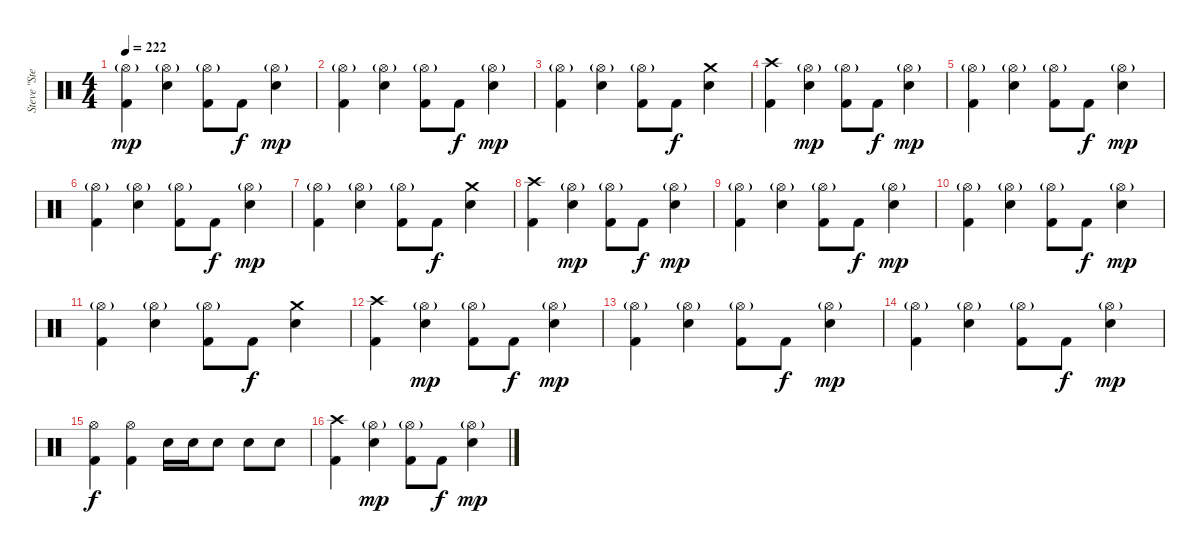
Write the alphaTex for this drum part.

\track ("Steve \"Stevo32\" Jocz " "Steve \"Ste") {instrument percussion}
\staff {score}
\articulation defaults
\ts (4 4)
\tempo 222
\clef neutral
\ks c
("Hi-Hat (open)"{g} "Kick (hit) 2").4{dy mp} ("Hi-Hat (open)"{g} "Electric Snare (hit)").4 ("Hi-Hat (open)"{g} "Kick (hit) 2").8 "Kick (hit) 2".8{dy f} ("Hi-Hat (open)"{g} "Electric Snare (hit)").4{dy mp} |
("Hi-Hat (open)"{g} "Kick (hit) 2").4 ("Hi-Hat (open)"{g} "Electric Snare (hit)").4 ("Hi-Hat (open)"{g} "Kick (hit) 2").8 "Kick (hit) 2".8{dy f} ("Hi-Hat (open)"{g} "Electric Snare (hit)").4{dy mp} |
("Hi-Hat (open)"{g} "Kick (hit) 2").4 ("Hi-Hat (open)"{g} "Electric Snare (hit)").4 ("Hi-Hat (open)"{g} "Kick (hit) 2").8 "Kick (hit) 2".8{dy f} ("Crash medium (hit)" "Electric Snare (hit)").4 |
("Crash high (hit)" "Kick (hit) 2").4 ("Hi-Hat (open)"{g} "Electric Snare (hit)").4{dy mp} ("Hi-Hat (open)"{g} "Kick (hit) 2").8 "Kick (hit) 2".8{dy f} ("Hi-Hat (open)"{g} "Electric Snare (hit)").4{dy mp} |
("Hi-Hat (open)"{g} "Kick (hit) 2").4 ("Hi-Hat (open)"{g} "Electric Snare (hit)").4 ("Hi-Hat (open)"{g} "Kick (hit) 2").8 "Kick (hit) 2".8{dy f} ("Hi-Hat (open)"{g} "Electric Snare (hit)").4{dy mp} |
("Hi-Hat (open)"{g} "Kick (hit) 2").4 ("Hi-Hat (open)"{g} "Electric Snare (hit)").4 ("Hi-Hat (open)"{g} "Kick (hit) 2").8 "Kick (hit) 2".8{dy f} ("Hi-Hat (open)"{g} "Electric Snare (hit)").4{dy mp} |
("Hi-Hat (open)"{g} "Kick (hit) 2").4 ("Hi-Hat (open)"{g} "Electric Snare (hit)").4 ("Hi-Hat (open)"{g} "Kick (hit) 2").8 "Kick (hit) 2".8{dy f} ("Crash medium (hit)" "Electric Snare (hit)").4 |
("Crash high (hit)" "Kick (hit) 2").4 ("Hi-Hat (open)"{g} "Electric Snare (hit)").4{dy mp} ("Hi-Hat (open)"{g} "Kick (hit) 2").8 "Kick (hit) 2".8{dy f} ("Hi-Hat (open)"{g} "Electric Snare (hit)").4{dy mp} |
("Hi-Hat (open)"{g} "Kick (hit) 2").4 ("Hi-Hat (open)"{g} "Electric Snare (hit)").4 ("Hi-Hat (open)"{g} "Kick (hit) 2").8 "Kick (hit) 2".8{dy f} ("Hi-Hat (open)"{g} "Electric Snare (hit)").4{dy mp} |
("Hi-Hat (open)"{g} "Kick (hit) 2").4 ("Hi-Hat (open)"{g} "Electric Snare (hit)").4 ("Hi-Hat (open)"{g} "Kick (hit) 2").8 "Kick (hit) 2".8{dy f} ("Hi-Hat (open)"{g} "Electric Snare (hit)").4{dy mp} |
("Hi-Hat (open)"{g} "Kick (hit) 2").4 ("Hi-Hat (open)"{g} "Electric Snare (hit)").4 ("Hi-Hat (open)"{g} "Kick (hit) 2").8 "Kick (hit) 2".8{dy f} ("Crash medium (hit)" "Electric Snare (hit)").4 |
("Crash high (hit)" "Kick (hit) 2").4 ("Hi-Hat (open)"{g} "Electric Snare (hit)").4{dy mp} ("Hi-Hat (open)"{g} "Kick (hit) 2").8 "Kick (hit) 2".8{dy f} ("Hi-Hat (open)"{g} "Electric Snare (hit)").4{dy mp} |
("Hi-Hat (open)"{g} "Kick (hit) 2").4 ("Hi-Hat (open)"{g} "Electric Snare (hit)").4 ("Hi-Hat (open)"{g} "Kick (hit) 2").8 "Kick (hit) 2".8{dy f} ("Hi-Hat (open)"{g} "Electric Snare (hit)").4{dy mp} |
("Hi-Hat (open)"{g} "Kick (hit) 2").4 ("Hi-Hat (open)"{g} "Electric Snare (hit)").4 ("Hi-Hat (open)"{g} "Kick (hit) 2").8 "Kick (hit) 2".8{dy f} ("Hi-Hat (open)"{g} "Electric Snare (hit)").4{dy mp} |
("Hi-Hat (open)" "Kick (hit) 2").4{dy f} ("Hi-Hat (open)" "Kick (hit) 2").4 "Electric Snare (hit)".16 "Electric Snare (hit)".16 "Electric Snare (hit)".8 "Electric Snare (hit)".8 "Electric Snare (hit)".8 |
("Crash high (hit)" "Kick (hit) 2").4 ("Hi-Hat (open)"{g} "Electric Snare (hit)").4{dy mp} ("Hi-Hat (open)"{g} "Kick (hit) 2").8 "Kick (hit) 2".8{dy f} ("Hi-Hat (open)"{g} "Electric Snare (hit)").4{dy mp}
